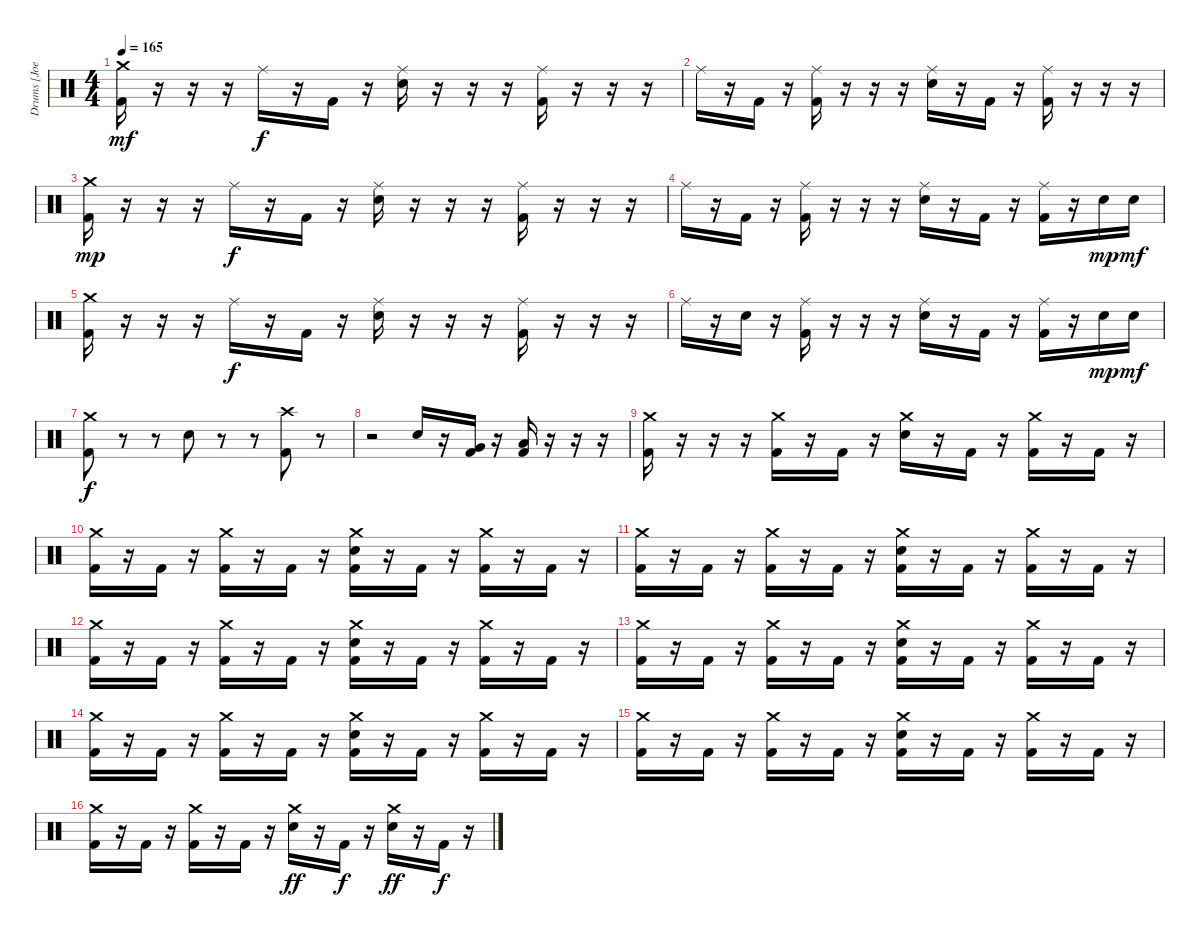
\track ("Drums [Joel Paolucci]" "Drums [Joe") {instrument percussion}
\staff {score}
\articulation defaults
\ts (4 4)
\tempo 165
\clef neutral
\ks c
("Crash medium (hit)" "Kick (hit) 2").16{dy mf} r.16 r.16 r.16 "Ride (middle)".16{dy f} r.16 "Kick (hit) 2".16 r.16 ("Ride (middle)" "Electric Snare (hit)").16 r.16 r.16 r.16 ("Ride (middle)" "Kick (hit) 2").16 r.16 r.16 r.16 |
"Ride (middle)".16 r.16 "Kick (hit) 2".16 r.16 ("Ride (middle)" "Kick (hit) 2").16 r.16 r.16 r.16 ("Ride (middle)" "Electric Snare (hit)").16 r.16 "Kick (hit) 2".16 r.16 ("Ride (middle)" "Kick (hit) 2").16 r.16 r.16 r.16 |
("Crash medium (hit)" "Kick (hit) 2").16{dy mp} r.16 r.16 r.16 "Ride (middle)".16{dy f} r.16 "Kick (hit) 2".16 r.16 ("Ride (middle)" "Electric Snare (hit)").16 r.16 r.16 r.16 ("Ride (middle)" "Kick (hit) 2").16 r.16 r.16 r.16 |
"Ride (middle)".16 r.16 "Kick (hit) 2".16 r.16 ("Ride (middle)" "Kick (hit) 2").16 r.16 r.16 r.16 ("Ride (middle)" "Electric Snare (hit)").16 r.16 "Kick (hit) 2".16 r.16 ("Ride (middle)" "Kick (hit) 2").16 r.16 "Electric Snare (hit)".16{dy mp} "Electric Snare (hit)".16{dy mf} |
("Crash medium (hit)" "Kick (hit) 2").16 r.16 r.16 r.16 "Ride (middle)".16{dy f} r.16 "Kick (hit) 2".16 r.16 ("Ride (middle)" "Electric Snare (hit)").16 r.16 r.16 r.16 ("Ride (middle)" "Kick (hit) 2").16 r.16 r.16 r.16 |
"Ride (middle)".16 r.16 "Electric Snare (hit)".16 r.16 ("Ride (middle)" "Kick (hit) 2").16 r.16 r.16 r.16 ("Ride (middle)" "Electric Snare (hit)").16 r.16 "Kick (hit) 2".16 r.16 ("Ride (middle)" "Kick (hit) 2").16 r.16 "Electric Snare (hit)".16{dy mp} "Electric Snare (hit)".16{dy mf} |
("Crash medium (hit)" "Kick (hit) 2").8{dy f} r.8 r.8 "Electric Snare (hit)".8 r.8 r.8 ("Crash high (hit)" "Kick (hit) 2").8 r.8 |
r.2 "Electric Snare (hit)".16 r.16 ("Very Low Tom (hit)" "Kick (hit) 2").16 r.16 ("Low Floor Tom (hit)" "Kick (hit) 2").16 r.16 r.16 r.16 |
("Crash medium (hit)" "Kick (hit) 2").16 r.16 r.16 r.16 ("Crash medium (hit)" "Kick (hit) 2").16 r.16 "Kick (hit) 2".16 r.16 ("Crash medium (hit)" "Electric Snare (hit)").16 r.16 "Kick (hit) 2".16 r.16 ("Crash medium (hit)" "Kick (hit) 2").16 r.16 "Kick (hit) 2".16 r.16 |
("Crash medium (hit)" "Kick (hit) 2").16 r.16 "Kick (hit) 2".16 r.16 ("Crash medium (hit)" "Kick (hit) 2").16 r.16 "Kick (hit) 2".16 r.16 ("Crash medium (hit)" "Electric Snare (hit)" "Kick (hit) 2").16 r.16 "Kick (hit) 2".16 r.16 ("Crash medium (hit)" "Kick (hit) 2").16 r.16 "Kick (hit) 2".16 r.16 |
("Crash medium (hit)" "Kick (hit) 2").16 r.16 "Kick (hit) 2".16 r.16 ("Crash medium (hit)" "Kick (hit) 2").16 r.16 "Kick (hit) 2".16 r.16 ("Crash medium (hit)" "Electric Snare (hit)" "Kick (hit) 2").16 r.16 "Kick (hit) 2".16 r.16 ("Crash medium (hit)" "Kick (hit) 2").16 r.16 "Kick (hit) 2".16 r.16 |
("Crash medium (hit)" "Kick (hit) 2").16 r.16 "Kick (hit) 2".16 r.16 ("Crash medium (hit)" "Kick (hit) 2").16 r.16 "Kick (hit) 2".16 r.16 ("Crash medium (hit)" "Electric Snare (hit)" "Kick (hit) 2").16 r.16 "Kick (hit) 2".16 r.16 ("Crash medium (hit)" "Kick (hit) 2").16 r.16 "Kick (hit) 2".16 r.16 |
("Crash medium (hit)" "Kick (hit) 2").16 r.16 "Kick (hit) 2".16 r.16 ("Crash medium (hit)" "Kick (hit) 2").16 r.16 "Kick (hit) 2".16 r.16 ("Crash medium (hit)" "Electric Snare (hit)" "Kick (hit) 2").16 r.16 "Kick (hit) 2".16 r.16 ("Crash medium (hit)" "Kick (hit) 2").16 r.16 "Kick (hit) 2".16 r.16 |
("Crash medium (hit)" "Kick (hit) 2").16 r.16 "Kick (hit) 2".16 r.16 ("Crash medium (hit)" "Kick (hit) 2").16 r.16 "Kick (hit) 2".16 r.16 ("Crash medium (hit)" "Electric Snare (hit)" "Kick (hit) 2").16 r.16 "Kick (hit) 2".16 r.16 ("Crash medium (hit)" "Kick (hit) 2").16 r.16 "Kick (hit) 2".16 r.16 |
("Crash medium (hit)" "Kick (hit) 2").16 r.16 "Kick (hit) 2".16 r.16 ("Crash medium (hit)" "Kick (hit) 2").16 r.16 "Kick (hit) 2".16 r.16 ("Crash medium (hit)" "Electric Snare (hit)" "Kick (hit) 2").16 r.16 "Kick (hit) 2".16 r.16 ("Crash medium (hit)" "Kick (hit) 2").16 r.16 "Kick (hit) 2".16 r.16 |
("Crash medium (hit)" "Kick (hit) 2").16 r.16 "Kick (hit) 2".16 r.16 ("Crash medium (hit)" "Kick (hit) 2").16 r.16 "Kick (hit) 2".16 r.16 ("Crash medium (hit)" "Electric Snare (hit)").16{dy ff} r.16 "Kick (hit) 2".16{dy f} r.16 ("Crash medium (hit)" "Electric Snare (hit)").16{dy ff} r.16 "Kick (hit) 2".16{dy f} r.16
